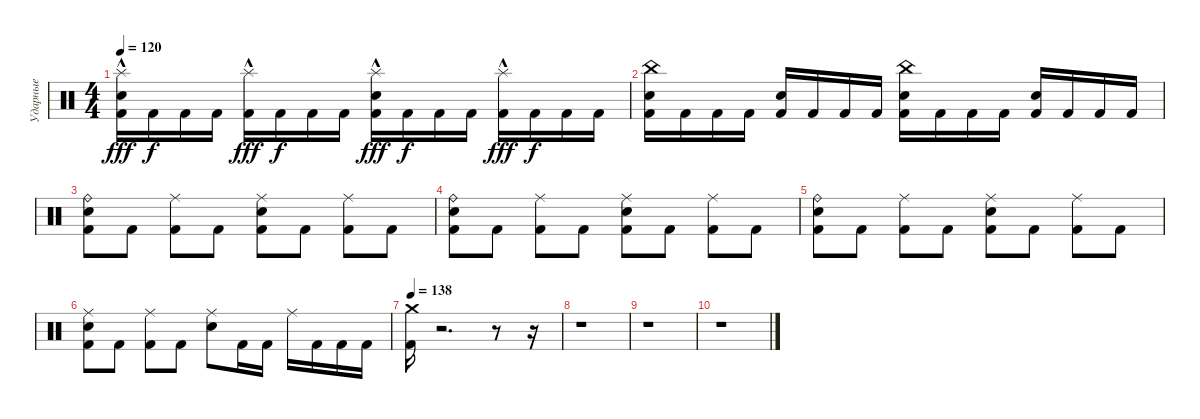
\track ("Ударные" "Ударные") {instrument percussion}
\staff {score}
\articulation defaults
\ts (4 4)
\tempo 120
\clef neutral
\ks c
("Electric Snare (hit)" "Kick (hit) 2" "Splash (hit)"{hac}).16{dy fff} "Kick (hit) 2".16{dy f} "Kick (hit) 2".16 "Kick (hit) 2".16 ("Kick (hit) 2" "Splash (hit)"{hac}).16{dy fff} "Kick (hit) 2".16{dy f} "Kick (hit) 2".16 "Kick (hit) 2".16 ("Electric Snare (hit)" "Kick (hit) 2" "Splash (hit)"{hac}).16{dy fff} "Kick (hit) 2".16{dy f} "Kick (hit) 2".16 "Kick (hit) 2".16 ("Kick (hit) 2" "Splash (hit)"{hac}).16{dy fff} "Kick (hit) 2".16{dy f} "Kick (hit) 2".16 "Kick (hit) 2".16 |
("Electric Snare (hit)" "Kick (hit) 2" "China (hit)").16 "Kick (hit) 2".16 "Kick (hit) 2".16 "Kick (hit) 2".16 ("Electric Snare (hit)" "Kick (hit) 2").16 "Kick (hit) 2".16 "Kick (hit) 2".16 "Kick (hit) 2".16 ("Electric Snare (hit)" "Kick (hit) 2" "China (hit)").16 "Kick (hit) 2".16 "Kick (hit) 2".16 "Kick (hit) 2".16 ("Electric Snare (hit)" "Kick (hit) 2").16 "Kick (hit) 2".16 "Kick (hit) 2".16 "Kick (hit) 2".16 |
("Electric Snare (hit)" "Kick (hit) 2" "Ride (bell)").8 "Kick (hit) 2".8 ("Kick (hit) 2" "Ride (middle)").8 "Kick (hit) 2".8 ("Electric Snare (hit)" "Kick (hit) 2" "Ride (middle)").8 "Kick (hit) 2".8 ("Kick (hit) 2" "Ride (middle)").8 "Kick (hit) 2".8 |
("Electric Snare (hit)" "Kick (hit) 2" "Ride (bell)").8 "Kick (hit) 2".8 ("Kick (hit) 2" "Ride (middle)").8 "Kick (hit) 2".8 ("Electric Snare (hit)" "Kick (hit) 2" "Ride (middle)").8 "Kick (hit) 2".8 ("Kick (hit) 2" "Ride (middle)").8 "Kick (hit) 2".8 |
("Electric Snare (hit)" "Kick (hit) 2" "Ride (bell)").8 "Kick (hit) 2".8 ("Kick (hit) 2" "Ride (middle)").8 "Kick (hit) 2".8 ("Electric Snare (hit)" "Kick (hit) 2" "Ride (middle)").8 "Kick (hit) 2".8 ("Kick (hit) 2" "Ride (middle)").8 "Kick (hit) 2".8 |
("Electric Snare (hit)" "Kick (hit) 2" "Ride (middle)").8 "Kick (hit) 2".8 ("Kick (hit) 2" "Ride (middle)").8 "Kick (hit) 2".8 ("Electric Snare (hit)" "Ride (middle)").8 "Kick (hit) 2".16 "Kick (hit) 2".16 "Ride (middle)".16 "Kick (hit) 2".16 "Kick (hit) 2".16 "Kick (hit) 2".16 |
\tempo 138
("Kick (hit) 2" "Crash medium (hit)").16 r.2{d} r.8 r.16 |
r.1 |
r.1 |
r.1
